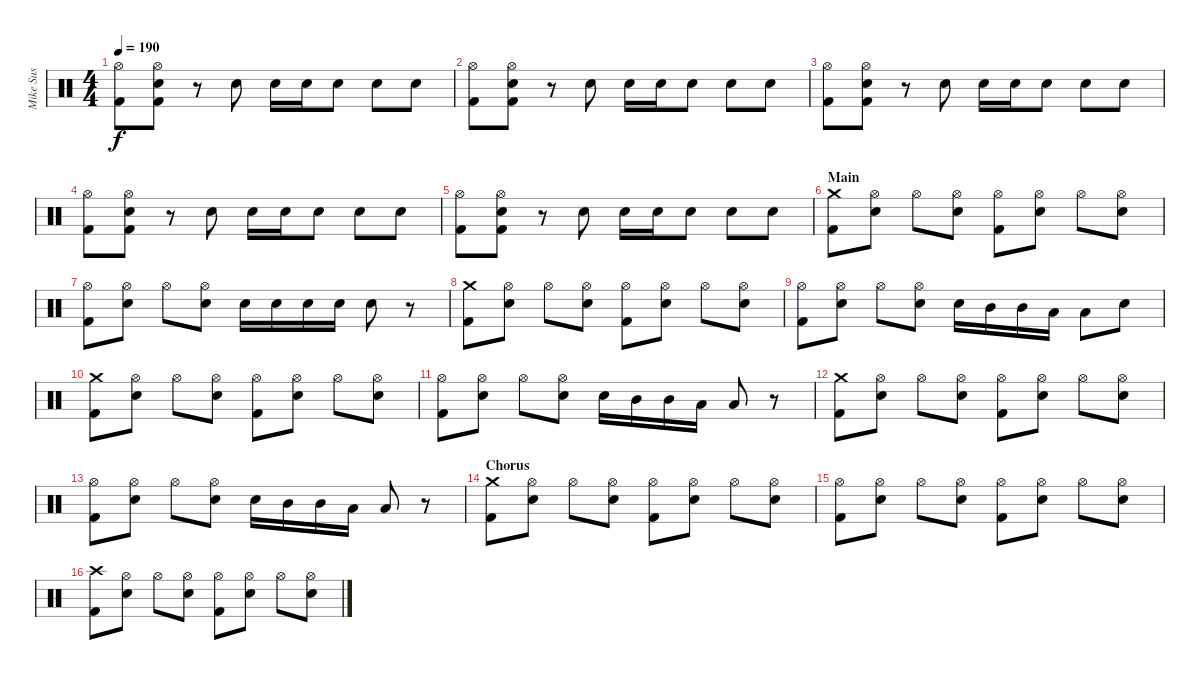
\track ("Mike Sus" "Mike Sus") {instrument percussion}
\staff {score}
\articulation defaults
\ts (4 4)
\tempo 190
\clef neutral
\ks c
("Hi-Hat (open)" "Kick (hit) 2").8{dy f} ("Hi-Hat (open)" "Electric Snare (hit)" "Kick (hit) 2").8 r.8 "Electric Snare (hit)".8 "Electric Snare (hit)".16 "Electric Snare (hit)".16 "Electric Snare (hit)".8 "Electric Snare (hit)".8 "Electric Snare (hit)".8 |
("Hi-Hat (open)" "Kick (hit) 2").8 ("Hi-Hat (open)" "Electric Snare (hit)" "Kick (hit) 2").8 r.8 "Electric Snare (hit)".8 "Electric Snare (hit)".16 "Electric Snare (hit)".16 "Electric Snare (hit)".8 "Electric Snare (hit)".8 "Electric Snare (hit)".8 |
("Hi-Hat (open)" "Kick (hit) 2").8 ("Hi-Hat (open)" "Electric Snare (hit)" "Kick (hit) 2").8 r.8 "Electric Snare (hit)".8 "Electric Snare (hit)".16 "Electric Snare (hit)".16 "Electric Snare (hit)".8 "Electric Snare (hit)".8 "Electric Snare (hit)".8 |
("Hi-Hat (open)" "Kick (hit) 2").8 ("Hi-Hat (open)" "Electric Snare (hit)" "Kick (hit) 2").8 r.8 "Electric Snare (hit)".8 "Electric Snare (hit)".16 "Electric Snare (hit)".16 "Electric Snare (hit)".8 "Electric Snare (hit)".8 "Electric Snare (hit)".8 |
("Hi-Hat (open)" "Kick (hit) 2").8 ("Hi-Hat (open)" "Electric Snare (hit)" "Kick (hit) 2").8 r.8 "Electric Snare (hit)".8 "Electric Snare (hit)".16 "Electric Snare (hit)".16 "Electric Snare (hit)".8 "Electric Snare (hit)".8 "Electric Snare (hit)".8 |
\section ("" "Main")
("Crash medium (hit)" "Kick (hit) 2").8 ("Hi-Hat (open)" "Electric Snare (hit)").8 "Hi-Hat (open)".8 ("Hi-Hat (open)" "Electric Snare (hit)").8 ("Hi-Hat (open)" "Kick (hit) 2").8 ("Hi-Hat (open)" "Electric Snare (hit)").8 "Hi-Hat (open)".8 ("Hi-Hat (open)" "Electric Snare (hit)").8 |
("Hi-Hat (open)" "Kick (hit) 2").8 ("Hi-Hat (open)" "Electric Snare (hit)").8 "Hi-Hat (open)".8 ("Hi-Hat (open)" "Electric Snare (hit)").8 "Electric Snare (hit)".16 "Electric Snare (hit)".16 "Electric Snare (hit)".16 "Electric Snare (hit)".16 "Electric Snare (hit)".8 r.8 |
("Crash medium (hit)" "Kick (hit) 2").8 ("Hi-Hat (open)" "Electric Snare (hit)").8 "Hi-Hat (open)".8 ("Hi-Hat (open)" "Electric Snare (hit)").8 ("Hi-Hat (open)" "Kick (hit) 2").8 ("Hi-Hat (open)" "Electric Snare (hit)").8 "Hi-Hat (open)".8 ("Hi-Hat (open)" "Electric Snare (hit)").8 |
("Hi-Hat (open)" "Kick (hit) 2").8 ("Hi-Hat (open)" "Electric Snare (hit)").8 "Hi-Hat (open)".8 ("Hi-Hat (open)" "Electric Snare (hit)").8 "Electric Snare (hit)".16 "Mid Tom (hit)".16 "Mid Tom (hit)".16 "Low Tom (hit)".16 "Low Tom (hit)".8 "Electric Snare (hit)".8 |
("Crash medium (hit)" "Kick (hit) 2").8 ("Hi-Hat (open)" "Electric Snare (hit)").8 "Hi-Hat (open)".8 ("Hi-Hat (open)" "Electric Snare (hit)").8 ("Hi-Hat (open)" "Kick (hit) 2").8 ("Hi-Hat (open)" "Electric Snare (hit)").8 "Hi-Hat (open)".8 ("Hi-Hat (open)" "Electric Snare (hit)").8 |
("Hi-Hat (open)" "Kick (hit) 2").8 ("Hi-Hat (open)" "Electric Snare (hit)").8 "Hi-Hat (open)".8 ("Hi-Hat (open)" "Electric Snare (hit)").8 "Electric Snare (hit)".16 "Mid Tom (hit)".16 "Mid Tom (hit)".16 "Low Tom (hit)".16 "Low Tom (hit)".8 r.8 |
("Crash medium (hit)" "Kick (hit) 2").8 ("Hi-Hat (open)" "Electric Snare (hit)").8 "Hi-Hat (open)".8 ("Hi-Hat (open)" "Electric Snare (hit)").8 ("Hi-Hat (open)" "Kick (hit) 2").8 ("Hi-Hat (open)" "Electric Snare (hit)").8 "Hi-Hat (open)".8 ("Hi-Hat (open)" "Electric Snare (hit)").8 |
("Hi-Hat (open)" "Kick (hit) 2").8 ("Hi-Hat (open)" "Electric Snare (hit)").8 "Hi-Hat (open)".8 ("Hi-Hat (open)" "Electric Snare (hit)").8 "Electric Snare (hit)".16 "Mid Tom (hit)".16 "Mid Tom (hit)".16 "Low Tom (hit)".16 "Low Tom (hit)".8 r.8 |
\section ("" "Chorus")
("Crash medium (hit)" "Kick (hit) 2").8 ("Hi-Hat (open)" "Electric Snare (hit)").8 "Hi-Hat (open)".8 ("Hi-Hat (open)" "Electric Snare (hit)").8 ("Hi-Hat (open)" "Kick (hit) 2").8 ("Hi-Hat (open)" "Electric Snare (hit)").8 "Hi-Hat (open)".8 ("Hi-Hat (open)" "Electric Snare (hit)").8 |
("Hi-Hat (open)" "Kick (hit) 2").8 ("Hi-Hat (open)" "Electric Snare (hit)").8 "Hi-Hat (open)".8 ("Hi-Hat (open)" "Electric Snare (hit)").8 ("Hi-Hat (open)" "Kick (hit) 2").8 ("Hi-Hat (open)" "Electric Snare (hit)").8 "Hi-Hat (open)".8 ("Hi-Hat (open)" "Electric Snare (hit)").8 |
("Crash high (hit)" "Kick (hit) 2").8 ("Hi-Hat (open)" "Electric Snare (hit)").8 "Hi-Hat (open)".8 ("Hi-Hat (open)" "Electric Snare (hit)").8 ("Hi-Hat (open)" "Kick (hit) 2").8 ("Hi-Hat (open)" "Electric Snare (hit)").8 "Hi-Hat (open)".8 ("Hi-Hat (open)" "Electric Snare (hit)").8
